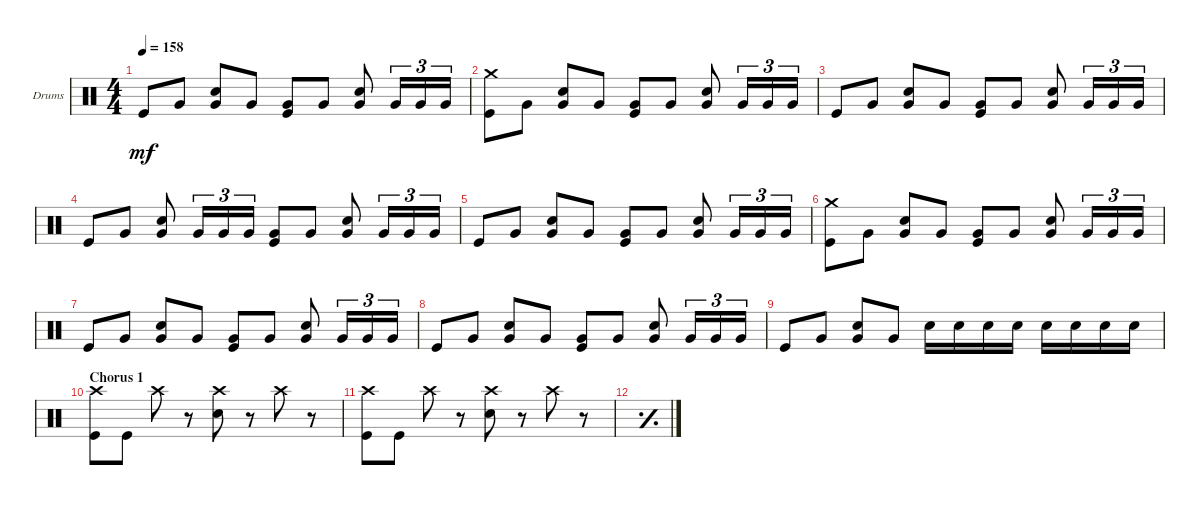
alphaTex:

\defaultSystemsLayout 4
\bracketExtendMode groupsimilarinstruments
\firstSystemTrackNameOrientation horizontal
\otherSystemsTrackNameOrientation horizontal
\track ("Drums" "Drums") {instrument percussion}
\staff {score}
\articulation defaults
\ts (4 4)
\tempo 158
\clef neutral
\ks c "Kick (hit)".8{dy mf} "Very Low Tom (hit)".8
("Very Low Tom (hit)" "Snare (hit) 2").8 "Very Low Tom (hit)".8 ("Very Low Tom (hit)" "Kick (hit)").8 "Very Low Tom (hit)".8 ("Very Low Tom (hit)" "Snare (hit) 2").8 "Very Low Tom (hit)".16{tu (3 2)} "Very Low Tom (hit)".16{tu (3 2)} "Very Low Tom (hit)".16{tu (3 2)} |
("Crash medium (hit)" "Kick (hit)").8 "Very Low Tom (hit)".8 ("Very Low Tom (hit)" "Snare (hit) 2").8 "Very Low Tom (hit)".8 ("Very Low Tom (hit)" "Kick (hit)").8 "Very Low Tom (hit)".8 ("Very Low Tom (hit)" "Snare (hit) 2").8 "Very Low Tom (hit)".16{tu (3 2)} "Very Low Tom (hit)".16{tu (3 2)} "Very Low Tom (hit)".16{tu (3 2)} |
"Kick (hit)".8 "Very Low Tom (hit)".8 ("Very Low Tom (hit)" "Snare (hit) 2").8 "Very Low Tom (hit)".8 ("Very Low Tom (hit)" "Kick (hit)").8 "Very Low Tom (hit)".8 ("Very Low Tom (hit)" "Snare (hit) 2").8 "Very Low Tom (hit)".16{tu (3 2)} "Very Low Tom (hit)".16{tu (3 2)} "Very Low Tom (hit)".16{tu (3 2)} |
"Kick (hit)".8 "Very Low Tom (hit)".8 ("Very Low Tom (hit)" "Snare (hit) 2").8 "Very Low Tom (hit)".16{tu (3 2)} "Very Low Tom (hit)".16{tu (3 2)} "Very Low Tom (hit)".16{tu (3 2)} ("Very Low Tom (hit)" "Kick (hit)").8 "Very Low Tom (hit)".8 ("Very Low Tom (hit)" "Snare (hit) 2").8 "Very Low Tom (hit)".16{tu (3 2)} "Very Low Tom (hit)".16{tu (3 2)} "Very Low Tom (hit)".16{tu (3 2)} |
"Kick (hit)".8 "Very Low Tom (hit)".8 ("Very Low Tom (hit)" "Snare (hit) 2").8 "Very Low Tom (hit)".8 ("Very Low Tom (hit)" "Kick (hit)").8 "Very Low Tom (hit)".8 ("Very Low Tom (hit)" "Snare (hit) 2").8 "Very Low Tom (hit)".16{tu (3 2)} "Very Low Tom (hit)".16{tu (3 2)} "Very Low Tom (hit)".16{tu (3 2)} |
("Crash medium (hit)" "Kick (hit)").8 "Very Low Tom (hit)".8 ("Very Low Tom (hit)" "Snare (hit) 2").8 "Very Low Tom (hit)".8 ("Very Low Tom (hit)" "Kick (hit)").8 "Very Low Tom (hit)".8 ("Very Low Tom (hit)" "Snare (hit) 2").8 "Very Low Tom (hit)".16{tu (3 2)} "Very Low Tom (hit)".16{tu (3 2)} "Very Low Tom (hit)".16{tu (3 2)} |
"Kick (hit)".8 "Very Low Tom (hit)".8 ("Very Low Tom (hit)" "Snare (hit) 2").8 "Very Low Tom (hit)".8 ("Very Low Tom (hit)" "Kick (hit)").8 "Very Low Tom (hit)".8 ("Very Low Tom (hit)" "Snare (hit) 2").8 "Very Low Tom (hit)".16{tu (3 2)} "Very Low Tom (hit)".16{tu (3 2)} "Very Low Tom (hit)".16{tu (3 2)} |
"Kick (hit)".8 "Very Low Tom (hit)".8 ("Very Low Tom (hit)" "Snare (hit) 2").8 "Very Low Tom (hit)".8 ("Very Low Tom (hit)" "Kick (hit)").8 "Very Low Tom (hit)".8 ("Very Low Tom (hit)" "Snare (hit) 2").8 "Very Low Tom (hit)".16{tu (3 2)} "Very Low Tom (hit)".16{tu (3 2)} "Very Low Tom (hit)".16{tu (3 2)} |
"Kick (hit)".8 "Very Low Tom (hit)".8 ("Very Low Tom (hit)" "Snare (hit) 2").8 "Very Low Tom (hit)".8 "Snare (hit) 2".16 "Snare (hit) 2".16 "Snare (hit) 2".16 "Snare (hit) 2".16 "Snare (hit) 2".16 "Snare (hit) 2".16 "Snare (hit) 2".16 "Snare (hit) 2".16 |
\section ("" "Chorus 1")
("Kick (hit)" "Crash high (hit)").8 "Kick (hit)".8 "Crash high (hit)".8 r.8 ("Snare (hit) 2" "Crash high (hit)").8 r.8 "Crash high (hit)".8 r.8 |
("Kick (hit)" "Crash high (hit)").8 "Kick (hit)".8 "Crash high (hit)".8 r.8 ("Snare (hit) 2" "Crash high (hit)").8 r.8 "Crash high (hit)".8 r.8 |
\simile simple
